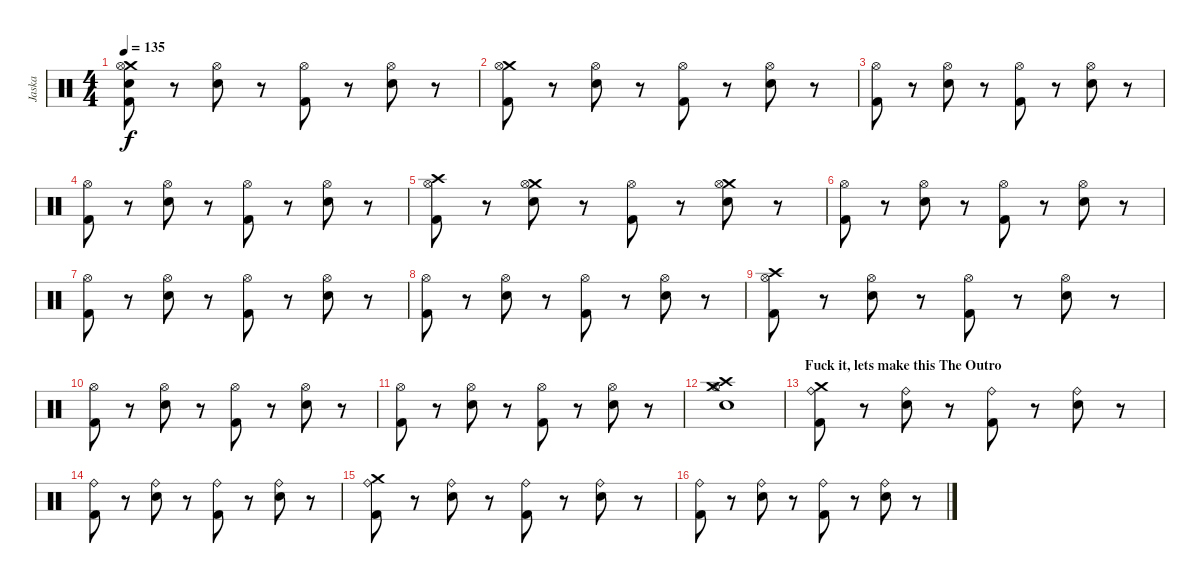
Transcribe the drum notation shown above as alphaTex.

\track ("Jaska" "Jaska") {instrument percussion}
\staff {score}
\articulation defaults
\ts (4 4)
\tempo 135
\clef neutral
\ks c
("Crash medium (hit)" "Hi-Hat (open)" "Snare (hit) 2" "Kick (hit) 2").8{dy f} r.8 ("Hi-Hat (open)" "Snare (hit) 2").8 r.8 ("Hi-Hat (open)" "Kick (hit) 2").8 r.8 ("Hi-Hat (open)" "Snare (hit) 2").8 r.8 |
("Crash medium (hit)" "Hi-Hat (open)" "Kick (hit) 2").8 r.8 ("Hi-Hat (open)" "Snare (hit) 2").8 r.8 ("Hi-Hat (open)" "Kick (hit) 2").8 r.8 ("Hi-Hat (open)" "Snare (hit) 2").8 r.8 |
("Hi-Hat (open)" "Kick (hit) 2").8 r.8 ("Hi-Hat (open)" "Snare (hit) 2").8 r.8 ("Hi-Hat (open)" "Kick (hit) 2").8 r.8 ("Hi-Hat (open)" "Snare (hit) 2").8 r.8 |
("Hi-Hat (open)" "Kick (hit) 2").8 r.8 ("Hi-Hat (open)" "Snare (hit) 2").8 r.8 ("Hi-Hat (open)" "Kick (hit) 2").8 r.8 ("Hi-Hat (open)" "Snare (hit) 2").8 r.8 |
("Crash high (hit)" "Hi-Hat (open)" "Kick (hit) 2").8 r.8 ("Crash medium (hit)" "Hi-Hat (open)" "Snare (hit) 2").8 r.8 ("Hi-Hat (open)" "Kick (hit) 2").8 r.8 ("Crash medium (hit)" "Hi-Hat (open)" "Snare (hit) 2").8 r.8 |
("Hi-Hat (open)" "Kick (hit) 2").8 r.8 ("Hi-Hat (open)" "Snare (hit) 2").8 r.8 ("Hi-Hat (open)" "Kick (hit) 2").8 r.8 ("Hi-Hat (open)" "Snare (hit) 2").8 r.8 |
("Hi-Hat (open)" "Kick (hit) 2").8 r.8 ("Hi-Hat (open)" "Snare (hit) 2").8 r.8 ("Hi-Hat (open)" "Kick (hit) 2").8 r.8 ("Hi-Hat (open)" "Snare (hit) 2").8 r.8 |
("Hi-Hat (open)" "Kick (hit) 2").8 r.8 ("Hi-Hat (open)" "Snare (hit) 2").8 r.8 ("Hi-Hat (open)" "Kick (hit) 2").8 r.8 ("Hi-Hat (open)" "Snare (hit) 2").8 r.8 |
("Crash high (hit)" "Hi-Hat (open)" "Kick (hit) 2").8 r.8 ("Hi-Hat (open)" "Snare (hit) 2").8 r.8 ("Hi-Hat (open)" "Kick (hit) 2").8 r.8 ("Hi-Hat (open)" "Snare (hit) 2").8 r.8 |
("Hi-Hat (open)" "Kick (hit) 2").8 r.8 ("Hi-Hat (open)" "Snare (hit) 2").8 r.8 ("Hi-Hat (open)" "Kick (hit) 2").8 r.8 ("Hi-Hat (open)" "Snare (hit) 2").8 r.8 |
("Hi-Hat (open)" "Kick (hit) 2").8 r.8 ("Hi-Hat (open)" "Snare (hit) 2").8 r.8 ("Hi-Hat (open)" "Kick (hit) 2").8 r.8 ("Hi-Hat (open)" "Snare (hit) 2").8 r.8 |
("Crash high (hit)" "Hi-Hat (open)" "Crash medium (hit)" "Snare (hit) 2").1 |
\section ("" "Fuck it, lets make this The Outro")
("Crash medium (hit)" "Ride (bell)" "Kick (hit) 2").8 r.8 ("Ride (bell)" "Snare (hit) 2").8 r.8 ("Ride (bell)" "Kick (hit) 2").8 r.8 ("Ride (bell)" "Snare (hit) 2").8 r.8 |
("Ride (bell)" "Kick (hit) 2").8 r.8 ("Ride (bell)" "Snare (hit) 2").8 r.8 ("Ride (bell)" "Kick (hit) 2").8 r.8 ("Ride (bell)" "Snare (hit) 2").8 r.8 |
("Crash medium (hit)" "Ride (bell)" "Kick (hit) 2").8 r.8 ("Ride (bell)" "Snare (hit) 2").8 r.8 ("Ride (bell)" "Kick (hit) 2").8 r.8 ("Ride (bell)" "Snare (hit) 2").8 r.8 |
("Ride (bell)" "Kick (hit) 2").8 r.8 ("Ride (bell)" "Snare (hit) 2").8 r.8 ("Ride (bell)" "Kick (hit) 2").8 r.8 ("Ride (bell)" "Snare (hit) 2").8 r.8
